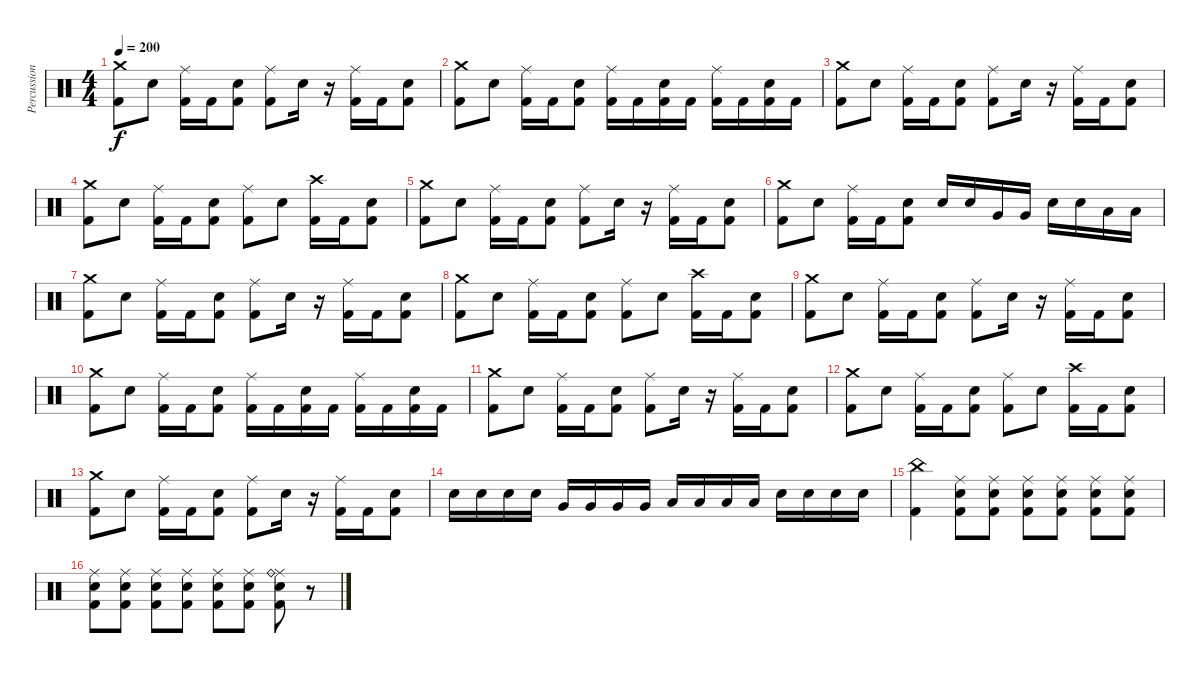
\track ("Percussions" "Percussion") {instrument percussion}
\staff {score}
\articulation defaults
\ts (4 4)
\tempo 200
\clef neutral
\ks c
("Crash medium (hit)" "Kick (hit) 2").8{dy f} "Electric Snare (hit)".8 ("Ride (middle)" "Kick (hit) 2").16 "Kick (hit) 2".16 ("Electric Snare (hit)" "Kick (hit) 2").8 ("Ride (middle)" "Kick (hit) 2").8 "Electric Snare (hit)".16 r.16 ("Ride (middle)" "Kick (hit) 2").16 "Kick (hit) 2".16 ("Electric Snare (hit)" "Kick (hit) 2").8 |
("Crash medium (hit)" "Kick (hit) 2").8 "Electric Snare (hit)".8 ("Ride (middle)" "Kick (hit) 2").16 "Kick (hit) 2".16 ("Electric Snare (hit)" "Kick (hit) 2").8 ("Ride (middle)" "Kick (hit) 2").16 "Kick (hit) 2".16 ("Electric Snare (hit)" "Kick (hit) 2").16 "Kick (hit) 2".16 ("Ride (middle)" "Kick (hit) 2").16 "Kick (hit) 2".16 ("Electric Snare (hit)" "Kick (hit) 2").16 "Kick (hit) 2".16 |
("Crash medium (hit)" "Kick (hit) 2").8 "Electric Snare (hit)".8 ("Ride (middle)" "Kick (hit) 2").16 "Kick (hit) 2".16 ("Electric Snare (hit)" "Kick (hit) 2").8 ("Ride (middle)" "Kick (hit) 2").8 "Electric Snare (hit)".16 r.16 ("Ride (middle)" "Kick (hit) 2").16 "Kick (hit) 2".16 ("Electric Snare (hit)" "Kick (hit) 2").8 |
("Crash medium (hit)" "Kick (hit) 2").8 "Electric Snare (hit)".8 ("Ride (middle)" "Kick (hit) 2").16 "Kick (hit) 2".16 ("Electric Snare (hit)" "Kick (hit) 2").8 ("Ride (middle)" "Kick (hit) 2").8 "Electric Snare (hit)".8 ("Crash high (hit)" "Kick (hit) 2").16 "Kick (hit) 2".16 ("Electric Snare (hit)" "Kick (hit) 2").8 |
("Crash medium (hit)" "Kick (hit) 2").8 "Electric Snare (hit)".8 ("Ride (middle)" "Kick (hit) 2").16 "Kick (hit) 2".16 ("Electric Snare (hit)" "Kick (hit) 2").8 ("Ride (middle)" "Kick (hit) 2").8 "Electric Snare (hit)".16 r.16 ("Ride (middle)" "Kick (hit) 2").16 "Kick (hit) 2".16 ("Electric Snare (hit)" "Kick (hit) 2").8 |
("Crash medium (hit)" "Kick (hit) 2").8 "Electric Snare (hit)".8 ("Ride (middle)" "Kick (hit) 2").16 "Kick (hit) 2".16 ("Electric Snare (hit)" "Kick (hit) 2").8 "Electric Snare (hit)".16 "Electric Snare (hit)".16 "Very Low Tom (hit)".16 "Very Low Tom (hit)".16 "Electric Snare (hit)".16 "Electric Snare (hit)".16 "Low Floor Tom (hit)".16 "Low Floor Tom (hit)".16 |
("Crash medium (hit)" "Kick (hit) 2").8 "Electric Snare (hit)".8 ("Ride (middle)" "Kick (hit) 2").16 "Kick (hit) 2".16 ("Electric Snare (hit)" "Kick (hit) 2").8 ("Ride (middle)" "Kick (hit) 2").8 "Electric Snare (hit)".16 r.16 ("Ride (middle)" "Kick (hit) 2").16 "Kick (hit) 2".16 ("Electric Snare (hit)" "Kick (hit) 2").8 |
("Crash medium (hit)" "Kick (hit) 2").8 "Electric Snare (hit)".8 ("Ride (middle)" "Kick (hit) 2").16 "Kick (hit) 2".16 ("Electric Snare (hit)" "Kick (hit) 2").8 ("Ride (middle)" "Kick (hit) 2").8 "Electric Snare (hit)".8 ("Crash high (hit)" "Kick (hit) 2").16 "Kick (hit) 2".16 ("Electric Snare (hit)" "Kick (hit) 2").8 |
("Crash medium (hit)" "Kick (hit) 2").8 "Electric Snare (hit)".8 ("Ride (middle)" "Kick (hit) 2").16 "Kick (hit) 2".16 ("Electric Snare (hit)" "Kick (hit) 2").8 ("Ride (middle)" "Kick (hit) 2").8 "Electric Snare (hit)".16 r.16 ("Ride (middle)" "Kick (hit) 2").16 "Kick (hit) 2".16 ("Electric Snare (hit)" "Kick (hit) 2").8 |
("Crash medium (hit)" "Kick (hit) 2").8 "Electric Snare (hit)".8 ("Ride (middle)" "Kick (hit) 2").16 "Kick (hit) 2".16 ("Electric Snare (hit)" "Kick (hit) 2").8 ("Ride (middle)" "Kick (hit) 2").16 "Kick (hit) 2".16 ("Electric Snare (hit)" "Kick (hit) 2").16 "Kick (hit) 2".16 ("Ride (middle)" "Kick (hit) 2").16 "Kick (hit) 2".16 ("Electric Snare (hit)" "Kick (hit) 2").16 "Kick (hit) 2".16 |
("Crash medium (hit)" "Kick (hit) 2").8 "Electric Snare (hit)".8 ("Ride (middle)" "Kick (hit) 2").16 "Kick (hit) 2".16 ("Electric Snare (hit)" "Kick (hit) 2").8 ("Ride (middle)" "Kick (hit) 2").8 "Electric Snare (hit)".16 r.16 ("Ride (middle)" "Kick (hit) 2").16 "Kick (hit) 2".16 ("Electric Snare (hit)" "Kick (hit) 2").8 |
("Crash medium (hit)" "Kick (hit) 2").8 "Electric Snare (hit)".8 ("Ride (middle)" "Kick (hit) 2").16 "Kick (hit) 2".16 ("Electric Snare (hit)" "Kick (hit) 2").8 ("Ride (middle)" "Kick (hit) 2").8 "Electric Snare (hit)".8 ("Crash high (hit)" "Kick (hit) 2").16 "Kick (hit) 2".16 ("Electric Snare (hit)" "Kick (hit) 2").8 |
("Crash medium (hit)" "Kick (hit) 2").8 "Electric Snare (hit)".8 ("Ride (middle)" "Kick (hit) 2").16 "Kick (hit) 2".16 ("Electric Snare (hit)" "Kick (hit) 2").8 ("Ride (middle)" "Kick (hit) 2").8 "Electric Snare (hit)".16 r.16 ("Ride (middle)" "Kick (hit) 2").16 "Kick (hit) 2".16 ("Electric Snare (hit)" "Kick (hit) 2").8 |
"Electric Snare (hit)".16 "Electric Snare (hit)".16 "Electric Snare (hit)".16 "Electric Snare (hit)".16 "Very Low Tom (hit)".16 "Very Low Tom (hit)".16 "Very Low Tom (hit)".16 "Very Low Tom (hit)".16 "Low Floor Tom (hit)".16 "Low Floor Tom (hit)".16 "Low Floor Tom (hit)".16 "Low Floor Tom (hit)".16 "Electric Snare (hit)".16 "Electric Snare (hit)".16 "Electric Snare (hit)".16 "Electric Snare (hit)".16 |
("China (hit)" "Kick (hit) 2").4 ("Ride (middle)" "Electric Snare (hit)" "Kick (hit) 2").8 ("Ride (middle)" "Electric Snare (hit)" "Kick (hit) 2").8 ("Ride (middle)" "Electric Snare (hit)" "Kick (hit) 2").8 ("Ride (middle)" "Electric Snare (hit)" "Kick (hit) 2").8 ("Ride (middle)" "Electric Snare (hit)" "Kick (hit) 2").8 ("Ride (middle)" "Electric Snare (hit)" "Kick (hit) 2").8 |
("Ride (middle)" "Electric Snare (hit)" "Kick (hit) 2").8 ("Ride (middle)" "Electric Snare (hit)" "Kick (hit) 2").8 ("Ride (middle)" "Electric Snare (hit)" "Kick (hit) 2").8 ("Ride (middle)" "Electric Snare (hit)" "Kick (hit) 2").8 ("Ride (middle)" "Electric Snare (hit)" "Kick (hit) 2").8 ("Ride (middle)" "Electric Snare (hit)" "Kick (hit) 2").8 ("Ride (middle)" "Ride (bell)" "Electric Snare (hit)" "Kick (hit) 2").8 r.8
